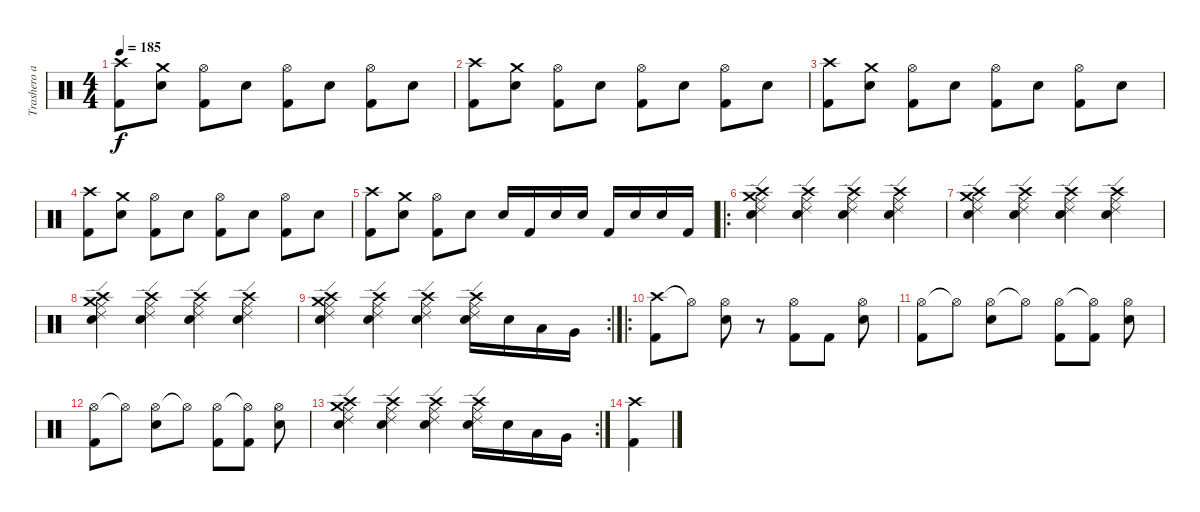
\track ("Trashero al peo" "Trashero a") {instrument percussion}
\staff {score}
\articulation defaults
\ts (4 4)
\tempo 185
\clef neutral
\ks c
("Crash high (hit)" "Kick (hit) 2").8{dy f} ("Crash medium (hit)" "Electric Snare (hit)").8 ("Kick (hit) 2" "Hi-Hat (open)").8 "Electric Snare (hit)".8 ("Kick (hit) 2" "Hi-Hat (open)").8 "Electric Snare (hit)".8 ("Kick (hit) 2" "Hi-Hat (open)").8 "Electric Snare (hit)".8 |
("Crash high (hit)" "Kick (hit) 2").8 ("Crash medium (hit)" "Electric Snare (hit)").8 ("Kick (hit) 2" "Hi-Hat (open)").8 "Electric Snare (hit)".8 ("Kick (hit) 2" "Hi-Hat (open)").8 "Electric Snare (hit)".8 ("Kick (hit) 2" "Hi-Hat (open)").8 "Electric Snare (hit)".8 |
("Crash high (hit)" "Kick (hit) 2").8 ("Crash medium (hit)" "Electric Snare (hit)").8 ("Kick (hit) 2" "Hi-Hat (open)").8 "Electric Snare (hit)".8 ("Kick (hit) 2" "Hi-Hat (open)").8 "Electric Snare (hit)".8 ("Kick (hit) 2" "Hi-Hat (open)").8 "Electric Snare (hit)".8 |
("Crash high (hit)" "Kick (hit) 2").8 ("Crash medium (hit)" "Electric Snare (hit)").8 ("Kick (hit) 2" "Hi-Hat (open)").8 "Electric Snare (hit)".8 ("Kick (hit) 2" "Hi-Hat (open)").8 "Electric Snare (hit)".8 ("Kick (hit) 2" "Hi-Hat (open)").8 "Electric Snare (hit)".8 |
("Crash high (hit)" "Kick (hit) 2").8 ("Crash medium (hit)" "Electric Snare (hit)").8 ("Kick (hit) 2" "Hi-Hat (open)").8 "Electric Snare (hit)".8 "Electric Snare (hit)".16 "Kick (hit) 2".16 "Electric Snare (hit)".16 "Electric Snare (hit)".16 "Kick (hit) 2".16 "Electric Snare (hit)".16 "Electric Snare (hit)".16 "Kick (hit) 2".16 |
\ro
("Crash high (hit)" "Ride (middle)" "Ride (edge) 2" "Electric Snare (hit)" "Crash medium (hit)").4 ("Crash high (hit)" "Ride (middle)" "Ride (edge) 2" "Electric Snare (hit)").4 ("Crash high (hit)" "Ride (middle)" "Ride (edge) 2" "Electric Snare (hit)").4 ("Crash high (hit)" "Ride (middle)" "Ride (edge) 2" "Electric Snare (hit)").4 |
("Crash high (hit)" "Ride (middle)" "Ride (edge) 2" "Electric Snare (hit)" "Crash medium (hit)").4 ("Crash high (hit)" "Ride (middle)" "Ride (edge) 2" "Electric Snare (hit)").4 ("Crash high (hit)" "Ride (middle)" "Ride (edge) 2" "Electric Snare (hit)").4 ("Crash high (hit)" "Ride (middle)" "Ride (edge) 2" "Electric Snare (hit)").4 |
("Crash high (hit)" "Ride (middle)" "Ride (edge) 2" "Electric Snare (hit)" "Crash medium (hit)").4 ("Crash high (hit)" "Ride (middle)" "Ride (edge) 2" "Electric Snare (hit)").4 ("Crash high (hit)" "Ride (middle)" "Ride (edge) 2" "Electric Snare (hit)").4 ("Crash high (hit)" "Ride (middle)" "Ride (edge) 2" "Electric Snare (hit)").4 |
\rc 2
("Crash high (hit)" "Ride (middle)" "Ride (edge) 2" "Electric Snare (hit)" "Crash medium (hit)").4 ("Crash high (hit)" "Ride (middle)" "Ride (edge) 2" "Electric Snare (hit)").4 ("Crash high (hit)" "Ride (middle)" "Ride (edge) 2" "Electric Snare (hit)").4 ("Crash high (hit)" "Ride (middle)" "Ride (edge) 2" "Electric Snare (hit)").16 "Electric Snare (hit)".16 "Low Floor Tom (hit)".16 "Very Low Tom (hit)".16 |
\ro
("Crash high (hit)" "Kick (hit) 2").8 "Hi-Hat (open)"{t}.8 ("Hi-Hat (open)" "Snare (hit) 2").8 r.8 ("Hi-Hat (open)" "Kick (hit) 2").8 "Kick (hit) 2".8 ("Hi-Hat (open)" "Snare (hit) 2").8 |
("Hi-Hat (open)" "Kick (hit) 2").8 "Hi-Hat (open)"{t}.8 ("Hi-Hat (open)" "Snare (hit) 2").8 "Hi-Hat (open)"{t}.8 ("Hi-Hat (open)" "Kick (hit) 2").8 ("Hi-Hat (open)"{t} "Kick (hit) 2").8 ("Hi-Hat (open)" "Snare (hit) 2").8 |
("Hi-Hat (open)" "Kick (hit) 2").8 "Hi-Hat (open)"{t}.8 ("Hi-Hat (open)" "Snare (hit) 2").8 "Hi-Hat (open)"{t}.8 ("Hi-Hat (open)" "Kick (hit) 2").8 ("Hi-Hat (open)"{t} "Kick (hit) 2").8 ("Hi-Hat (open)" "Snare (hit) 2").8 |
\rc 2
("Crash high (hit)" "Ride (middle)" "Ride (edge) 2" "Electric Snare (hit)" "Crash medium (hit)").4 ("Crash high (hit)" "Ride (middle)" "Ride (edge) 2" "Electric Snare (hit)").4 ("Crash high (hit)" "Ride (middle)" "Ride (edge) 2" "Electric Snare (hit)").4 ("Crash high (hit)" "Ride (middle)" "Ride (edge) 2" "Electric Snare (hit)").16 "Electric Snare (hit)".16 "Low Floor Tom (hit)".16 "Very Low Tom (hit)".16 |
("Crash high (hit)" "Kick (hit) 2").4
